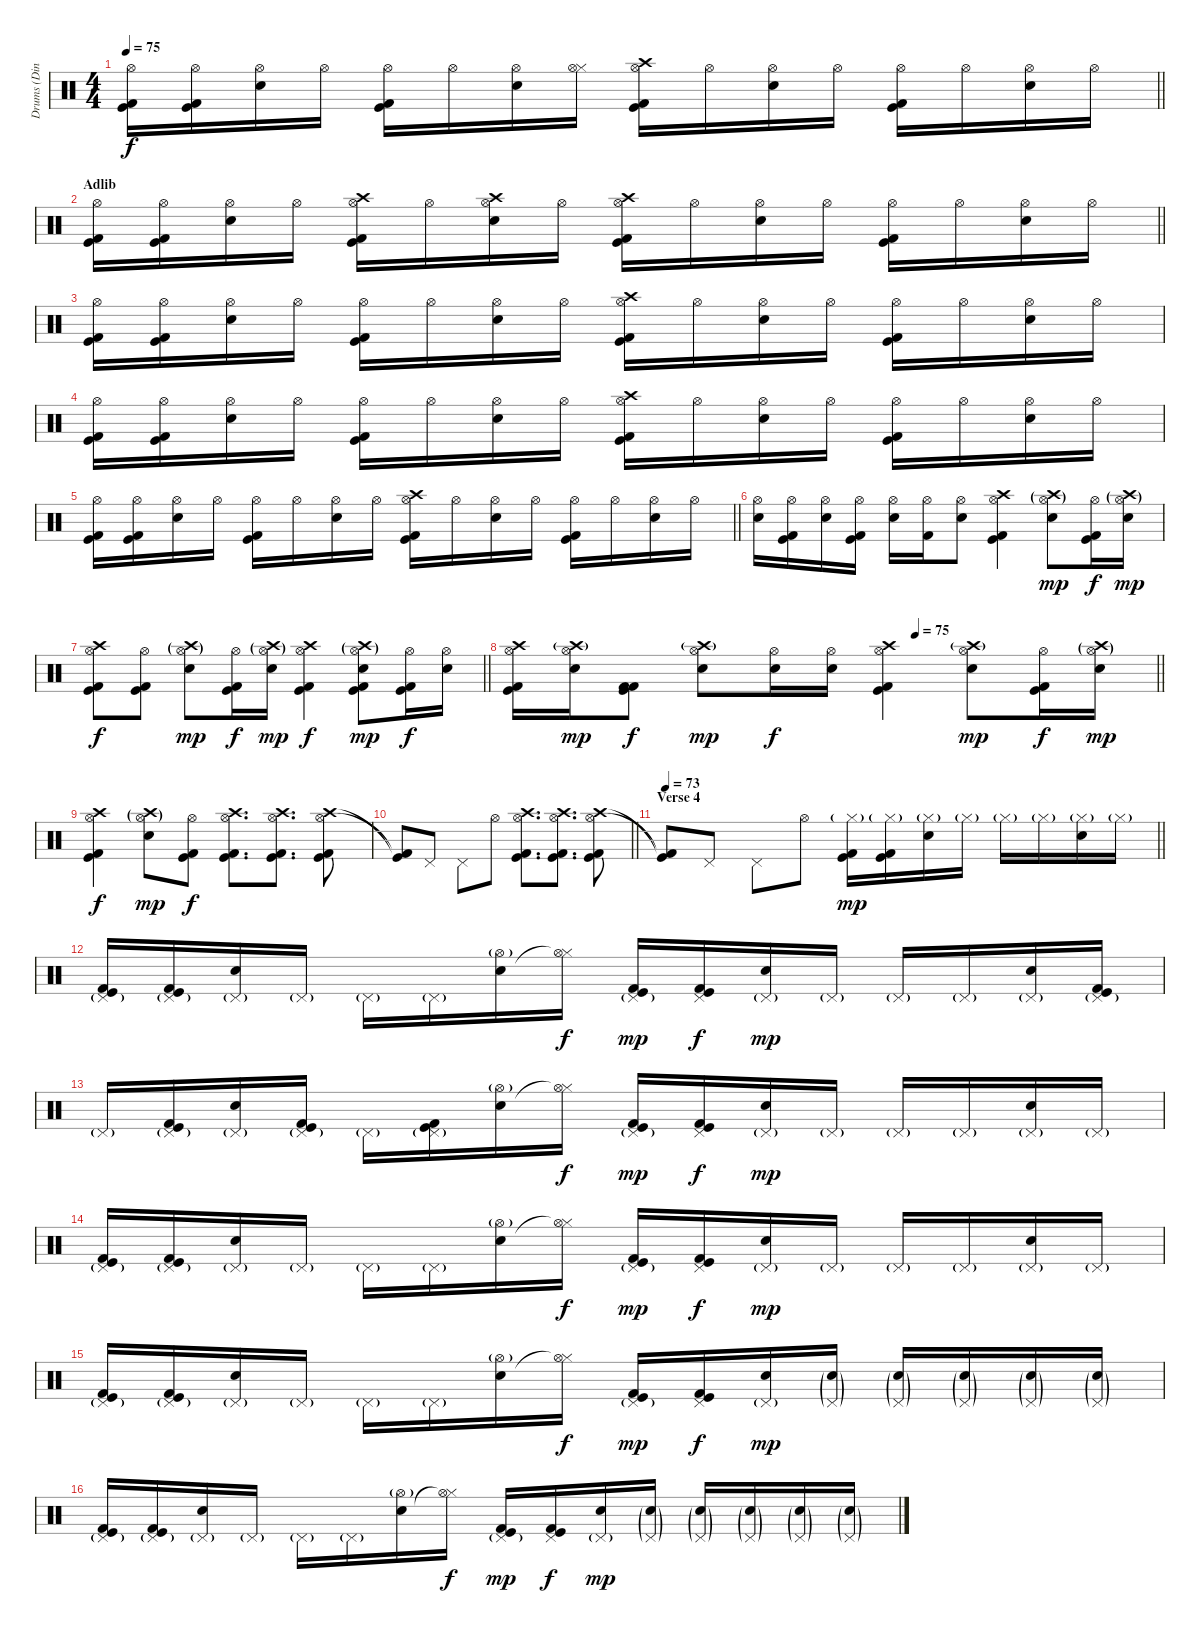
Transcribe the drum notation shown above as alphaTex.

\track ("Drums (Din-din)" "Drums (Din") {instrument percussion}
\staff {score}
\articulation defaults
\ts (4 4)
\tempo 75
\clef neutral
\barLineRight lightlight
\ks c
("Hi-Hat (open)" "Kick (hit)" "Kick (hit) 2").16{dy f} ("Hi-Hat (open)" "Kick (hit)" "Kick (hit) 2").16 ("Hi-Hat (open)" "Snare (hit) 2").16 "Hi-Hat (open)".16 ("Hi-Hat (open)" "Kick (hit)" "Kick (hit) 2").16 "Hi-Hat (open)".16 ("Hi-Hat (open)" "Snare (hit) 2").16 ("Hi-Hat (closed)" "Hi-Hat (open)").16 ("Crash high (hit)" "Hi-Hat (open)" "Kick (hit)" "Kick (hit) 2").16 "Hi-Hat (open)".16 ("Hi-Hat (open)" "Snare (hit) 2").16 "Hi-Hat (open)".16 ("Hi-Hat (open)" "Kick (hit)" "Kick (hit) 2").16 "Hi-Hat (open)".16 ("Hi-Hat (open)" "Snare (hit) 2").16 "Hi-Hat (open)".16 |
\section ("" "Adlib")
\barLineRight lightlight
("Hi-Hat (open)" "Kick (hit)" "Kick (hit) 2").16 ("Hi-Hat (open)" "Kick (hit)" "Kick (hit) 2").16 ("Hi-Hat (open)" "Snare (hit) 2").16 "Hi-Hat (open)".16 ("Crash high (hit)" "Hi-Hat (open)" "Kick (hit)" "Kick (hit) 2").16 "Hi-Hat (open)".16 ("Crash high (hit)" "Hi-Hat (open)" "Snare (hit) 2").16 "Hi-Hat (open)".16 ("Crash high (hit)" "Hi-Hat (open)" "Kick (hit)" "Kick (hit) 2").16 "Hi-Hat (open)".16 ("Hi-Hat (open)" "Snare (hit) 2").16 "Hi-Hat (open)".16 ("Hi-Hat (open)" "Kick (hit)" "Kick (hit) 2").16 "Hi-Hat (open)".16 ("Hi-Hat (open)" "Snare (hit) 2").16 "Hi-Hat (open)".16 |
("Hi-Hat (open)" "Kick (hit)" "Kick (hit) 2").16 ("Hi-Hat (open)" "Kick (hit)" "Kick (hit) 2").16 ("Hi-Hat (open)" "Snare (hit) 2").16 "Hi-Hat (open)".16 ("Hi-Hat (open)" "Kick (hit)" "Kick (hit) 2").16 "Hi-Hat (open)".16 ("Hi-Hat (open)" "Snare (hit) 2").16 "Hi-Hat (open)".16 ("Crash high (hit)" "Hi-Hat (open)" "Kick (hit)" "Kick (hit) 2").16 "Hi-Hat (open)".16 ("Hi-Hat (open)" "Snare (hit) 2").16 "Hi-Hat (open)".16 ("Hi-Hat (open)" "Kick (hit)" "Kick (hit) 2").16 "Hi-Hat (open)".16 ("Hi-Hat (open)" "Snare (hit) 2").16 "Hi-Hat (open)".16 |
("Hi-Hat (open)" "Kick (hit)" "Kick (hit) 2").16 ("Hi-Hat (open)" "Kick (hit)" "Kick (hit) 2").16 ("Hi-Hat (open)" "Snare (hit) 2").16 "Hi-Hat (open)".16 ("Hi-Hat (open)" "Kick (hit)" "Kick (hit) 2").16 "Hi-Hat (open)".16 ("Hi-Hat (open)" "Snare (hit) 2").16 "Hi-Hat (open)".16 ("Crash high (hit)" "Hi-Hat (open)" "Kick (hit)" "Kick (hit) 2").16 "Hi-Hat (open)".16 ("Hi-Hat (open)" "Snare (hit) 2").16 "Hi-Hat (open)".16 ("Hi-Hat (open)" "Kick (hit)" "Kick (hit) 2").16 "Hi-Hat (open)".16 ("Hi-Hat (open)" "Snare (hit) 2").16 "Hi-Hat (open)".16 |
\barLineRight lightlight
("Hi-Hat (open)" "Kick (hit)" "Kick (hit) 2").16 ("Hi-Hat (open)" "Kick (hit)" "Kick (hit) 2").16 ("Hi-Hat (open)" "Snare (hit) 2").16 "Hi-Hat (open)".16 ("Hi-Hat (open)" "Kick (hit)" "Kick (hit) 2").16 "Hi-Hat (open)".16 ("Hi-Hat (open)" "Snare (hit) 2").16 "Hi-Hat (open)".16 ("Crash high (hit)" "Hi-Hat (open)" "Kick (hit)" "Kick (hit) 2").16 "Hi-Hat (open)".16 ("Hi-Hat (open)" "Snare (hit) 2").16 "Hi-Hat (open)".16 ("Hi-Hat (open)" "Kick (hit)" "Kick (hit) 2").16 "Hi-Hat (open)".16 ("Hi-Hat (open)" "Snare (hit) 2").16 "Hi-Hat (open)".16 |
("Hi-Hat (open)" "Snare (hit) 2").16 ("Hi-Hat (open)" "Kick (hit)" "Kick (hit) 2").16 ("Hi-Hat (open)" "Snare (hit) 2").16 ("Hi-Hat (open)" "Kick (hit)" "Kick (hit) 2").16 ("Hi-Hat (open)" "Snare (hit) 2").16 ("Hi-Hat (open)" "Kick (hit) 2").16 ("Hi-Hat (open)" "Snare (hit) 2").8 ("Crash high (hit)" "Hi-Hat (open)" "Kick (hit)" "Kick (hit) 2").4 ("Crash high (hit)"{g} "Hi-Hat (open)"{g} "Snare (hit) 2").8{dy mp} ("Hi-Hat (open)" "Kick (hit)" "Kick (hit) 2").16{dy f} ("Crash high (hit)"{g} "Hi-Hat (open)"{g} "Snare (hit) 2").16{dy mp} |
\barLineRight lightlight
("Crash high (hit)" "Hi-Hat (open)" "Kick (hit)" "Kick (hit) 2").8{dy f} ("Hi-Hat (open)" "Kick (hit)" "Kick (hit) 2").8 ("Crash high (hit)"{g} "Hi-Hat (open)"{g} "Snare (hit) 2").8{dy mp} ("Hi-Hat (open)" "Kick (hit)" "Kick (hit) 2").16{dy f} ("Crash high (hit)"{g} "Hi-Hat (open)"{g} "Snare (hit) 2").16{dy mp} ("Crash high (hit)" "Hi-Hat (open)" "Kick (hit)" "Kick (hit) 2").4{dy f} ("Crash high (hit)"{g} "Hi-Hat (open)"{g} "Snare (hit) 2" "Kick (hit)" "Kick (hit) 2").8{dy mp} ("Hi-Hat (open)" "Kick (hit)" "Kick (hit) 2").16{dy f} ("Hi-Hat (open)" "Snare (hit) 2").16 |
\tempo (75 0.625)
\barLineRight lightlight
("Crash high (hit)" "Hi-Hat (open)" "Kick (hit)" "Kick (hit) 2").16 ("Crash high (hit)"{g} "Hi-Hat (open)" "Snare (hit) 2").16{dy mp} ("Kick (hit) 2" "Kick (hit)" "Kick (hit) 2").8{dy f} ("Crash high (hit)"{g} "Hi-Hat (open)" "Snare (hit) 2").8{dy mp} ("Hi-Hat (open)" "Snare (hit) 2").16{dy f} ("Hi-Hat (open)" "Snare (hit) 2").16 ("Crash high (hit)" "Hi-Hat (open)" "Kick (hit)" "Kick (hit) 2").4 ("Crash high (hit)"{g} "Hi-Hat (open)" "Snare (hit) 2").8{dy mp} ("Hi-Hat (open)" "Kick (hit)" "Kick (hit) 2").16{dy f} ("Crash high (hit)"{g} "Hi-Hat (open)"{g} "Snare (hit) 2").16{dy mp} |
("Crash high (hit)" "Hi-Hat (open)" "Kick (hit)" "Kick (hit) 2").4{dy f} ("Crash high (hit)"{g} "Hi-Hat (open)"{g} "Snare (hit) 2").8{dy mp} ("Hi-Hat (open)" "Kick (hit)" "Kick (hit) 2").8{dy f} ("Crash high (hit)" "Hi-Hat (open)" "Kick (hit)" "Kick (hit) 2").8{d} ("Crash high (hit)" "Hi-Hat (open)" "Kick (hit)" "Kick (hit) 2").8{d} ("Crash high (hit)" "Hi-Hat (open)" "Kick (hit)" "Kick (hit) 2").8 |
\barLineRight lightlight
("Kick (hit)"{t} "Kick (hit) 2"{t}).8 "Pedal Hi-Hat (hit)".8 "Pedal Hi-Hat (hit)".8 "Hi-Hat (open)".8 ("Crash high (hit)" "Hi-Hat (open)" "Kick (hit)" "Kick (hit) 2").8{d} ("Crash high (hit)" "Hi-Hat (open)" "Kick (hit)" "Kick (hit) 2").8{d} ("Crash high (hit)" "Hi-Hat (open)" "Kick (hit)" "Kick (hit) 2").8 |
\section ("" "Verse 4")
\tempo 73
\barLineRight lightlight
("Kick (hit)"{t} "Kick (hit) 2"{t}).8 "Pedal Hi-Hat (hit)".8 "Pedal Hi-Hat (hit)".8 "Hi-Hat (open)".8 ("Hi-Hat (closed)"{g} "Kick (hit)" "Kick (hit) 2").16{dy mp} ("Hi-Hat (closed)"{g} "Kick (hit)" "Kick (hit) 2").16 ("Hi-Hat (closed)"{g} "Snare (hit) 2").16 "Hi-Hat (closed)"{g}.16 "Hi-Hat (closed)"{g}.16 "Hi-Hat (closed)"{g}.16 ("Hi-Hat (closed)"{g} "Snare (hit) 2").16 "Hi-Hat (closed)"{g}.16 |
("Pedal Hi-Hat (hit)"{g} "Kick (hit)" "Kick (hit) 2").16 ("Pedal Hi-Hat (hit)"{g} "Kick (hit)" "Kick (hit) 2").16 ("Pedal Hi-Hat (hit)"{g} "Snare (hit) 2").16 "Pedal Hi-Hat (hit)"{g}.16 "Pedal Hi-Hat (hit)"{g}.16 "Pedal Hi-Hat (hit)"{g}.16 ("Hi-Hat (open)"{g} "Snare (hit) 2").16 ("Hi-Hat (closed)" "Hi-Hat (open)"{t}).16{dy f} ("Pedal Hi-Hat (hit)"{g} "Kick (hit)" "Kick (hit) 2").16{dy mp} ("Pedal Hi-Hat (hit)" "Kick (hit)" "Kick (hit) 2").16{dy f} ("Pedal Hi-Hat (hit)"{g} "Snare (hit) 2").16{dy mp} "Pedal Hi-Hat (hit)"{g}.16 "Pedal Hi-Hat (hit)"{g}.16 "Pedal Hi-Hat (hit)"{g}.16 ("Pedal Hi-Hat (hit)"{g} "Snare (hit) 2").16 ("Pedal Hi-Hat (hit)"{g} "Kick (hit)" "Kick (hit) 2").16 |
"Pedal Hi-Hat (hit)"{g}.16 ("Pedal Hi-Hat (hit)"{g} "Kick (hit)" "Kick (hit) 2").16 ("Pedal Hi-Hat (hit)"{g} "Snare (hit) 2").16 ("Pedal Hi-Hat (hit)"{g} "Kick (hit)" "Kick (hit) 2").16 "Pedal Hi-Hat (hit)"{g}.16 ("Pedal Hi-Hat (hit)"{g} "Kick (hit)" "Kick (hit) 2").16 ("Hi-Hat (open)"{g} "Snare (hit) 2").16 ("Hi-Hat (closed)" "Hi-Hat (open)"{t}).16{dy f} ("Pedal Hi-Hat (hit)"{g} "Kick (hit)" "Kick (hit) 2").16{dy mp} ("Pedal Hi-Hat (hit)" "Kick (hit)" "Kick (hit) 2").16{dy f} ("Pedal Hi-Hat (hit)"{g} "Snare (hit) 2").16{dy mp} "Pedal Hi-Hat (hit)"{g}.16 "Pedal Hi-Hat (hit)"{g}.16 "Pedal Hi-Hat (hit)"{g}.16 ("Pedal Hi-Hat (hit)"{g} "Snare (hit) 2").16 "Pedal Hi-Hat (hit)"{g}.16 |
("Pedal Hi-Hat (hit)"{g} "Kick (hit)" "Kick (hit) 2").16 ("Pedal Hi-Hat (hit)"{g} "Kick (hit)" "Kick (hit) 2").16 ("Pedal Hi-Hat (hit)"{g} "Snare (hit) 2").16 "Pedal Hi-Hat (hit)"{g}.16 "Pedal Hi-Hat (hit)"{g}.16 "Pedal Hi-Hat (hit)"{g}.16 ("Hi-Hat (open)"{g} "Snare (hit) 2").16 ("Hi-Hat (closed)" "Hi-Hat (open)"{t}).16{dy f} ("Pedal Hi-Hat (hit)"{g} "Kick (hit)" "Kick (hit) 2").16{dy mp} ("Pedal Hi-Hat (hit)" "Kick (hit)" "Kick (hit) 2").16{dy f} ("Pedal Hi-Hat (hit)"{g} "Snare (hit) 2").16{dy mp} "Pedal Hi-Hat (hit)"{g}.16 "Pedal Hi-Hat (hit)"{g}.16 "Pedal Hi-Hat (hit)"{g}.16 ("Pedal Hi-Hat (hit)"{g} "Snare (hit) 2").16 "Pedal Hi-Hat (hit)"{g}.16 |
("Pedal Hi-Hat (hit)"{g} "Kick (hit)" "Kick (hit) 2").16 ("Pedal Hi-Hat (hit)"{g} "Kick (hit)" "Kick (hit) 2").16 ("Pedal Hi-Hat (hit)"{g} "Snare (hit) 2").16 "Pedal Hi-Hat (hit)"{g}.16 "Pedal Hi-Hat (hit)"{g}.16 "Pedal Hi-Hat (hit)"{g}.16 ("Hi-Hat (open)"{g} "Snare (hit) 2").16 ("Hi-Hat (closed)" "Hi-Hat (open)"{t}).16{dy f} ("Pedal Hi-Hat (hit)"{g} "Kick (hit)" "Kick (hit) 2").16{dy mp} ("Pedal Hi-Hat (hit)" "Kick (hit)" "Kick (hit) 2").16{dy f} ("Pedal Hi-Hat (hit)"{g} "Snare (hit) 2").16{dy mp} ("Pedal Hi-Hat (hit)"{g} "Snare (hit) 2"{g}).16 ("Pedal Hi-Hat (hit)"{g} "Snare (hit) 2"{g}).16 ("Pedal Hi-Hat (hit)"{g} "Snare (hit) 2"{g}).16 ("Pedal Hi-Hat (hit)"{g} "Snare (hit) 2"{g}).16 ("Pedal Hi-Hat (hit)"{g} "Snare (hit) 2"{g}).16 |
("Pedal Hi-Hat (hit)"{g} "Kick (hit)" "Kick (hit) 2").16 ("Pedal Hi-Hat (hit)"{g} "Kick (hit)" "Kick (hit) 2").16 ("Pedal Hi-Hat (hit)"{g} "Snare (hit) 2").16 "Pedal Hi-Hat (hit)"{g}.16 "Pedal Hi-Hat (hit)"{g}.16 "Pedal Hi-Hat (hit)"{g}.16 ("Hi-Hat (open)"{g} "Snare (hit) 2").16 ("Hi-Hat (closed)" "Hi-Hat (open)"{t}).16{dy f} ("Pedal Hi-Hat (hit)"{g} "Kick (hit)" "Kick (hit) 2").16{dy mp} ("Pedal Hi-Hat (hit)" "Kick (hit)" "Kick (hit) 2").16{dy f} ("Pedal Hi-Hat (hit)"{g} "Snare (hit) 2").16{dy mp} ("Pedal Hi-Hat (hit)"{g} "Snare (hit) 2"{g}).16 ("Pedal Hi-Hat (hit)"{g} "Snare (hit) 2"{g}).16 ("Pedal Hi-Hat (hit)"{g} "Snare (hit) 2"{g}).16 ("Pedal Hi-Hat (hit)"{g} "Snare (hit) 2"{g}).16 ("Pedal Hi-Hat (hit)"{g} "Snare (hit) 2"{g}).16
